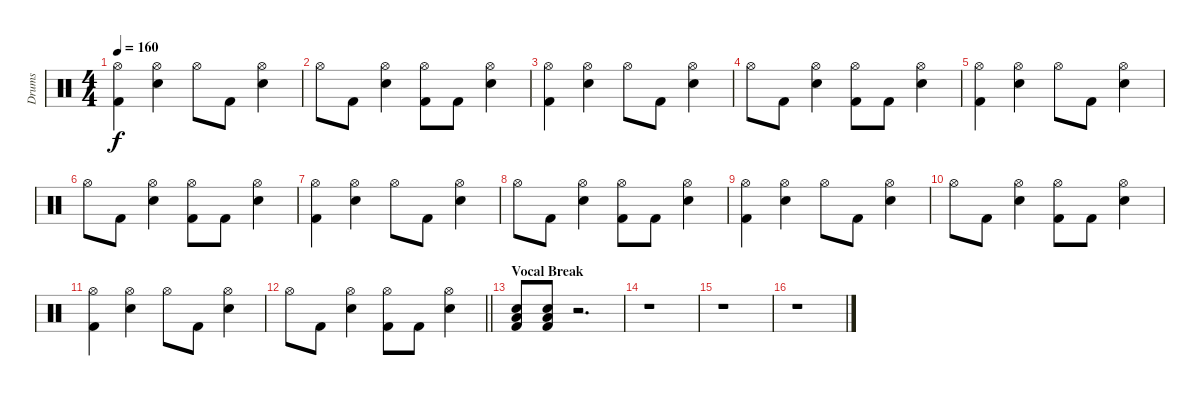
\track ("Drums" "Drums") {instrument percussion}
\staff {score}
\articulation defaults
\ts (4 4)
\tempo 160
\clef neutral
\ks c
("Hi-Hat (open)" "Kick (hit) 2").4{dy f} ("Hi-Hat (open)" "Electric Snare (hit)").4 "Hi-Hat (open)".8 "Kick (hit) 2".8 ("Hi-Hat (open)" "Electric Snare (hit)").4 |
"Hi-Hat (open)".8 "Kick (hit) 2".8 ("Hi-Hat (open)" "Electric Snare (hit)").4 ("Hi-Hat (open)" "Kick (hit) 2").8 "Kick (hit) 2".8 ("Hi-Hat (open)" "Electric Snare (hit)").4 |
("Hi-Hat (open)" "Kick (hit) 2").4 ("Hi-Hat (open)" "Electric Snare (hit)").4 "Hi-Hat (open)".8 "Kick (hit) 2".8 ("Hi-Hat (open)" "Electric Snare (hit)").4 |
"Hi-Hat (open)".8 "Kick (hit) 2".8 ("Hi-Hat (open)" "Electric Snare (hit)").4 ("Hi-Hat (open)" "Kick (hit) 2").8 "Kick (hit) 2".8 ("Hi-Hat (open)" "Electric Snare (hit)").4 |
("Hi-Hat (open)" "Kick (hit) 2").4 ("Hi-Hat (open)" "Electric Snare (hit)").4 "Hi-Hat (open)".8 "Kick (hit) 2".8 ("Hi-Hat (open)" "Electric Snare (hit)").4 |
"Hi-Hat (open)".8 "Kick (hit) 2".8 ("Hi-Hat (open)" "Electric Snare (hit)").4 ("Hi-Hat (open)" "Kick (hit) 2").8 "Kick (hit) 2".8 ("Hi-Hat (open)" "Electric Snare (hit)").4 |
("Hi-Hat (open)" "Kick (hit) 2").4 ("Hi-Hat (open)" "Electric Snare (hit)").4 "Hi-Hat (open)".8 "Kick (hit) 2".8 ("Hi-Hat (open)" "Electric Snare (hit)").4 |
"Hi-Hat (open)".8 "Kick (hit) 2".8 ("Hi-Hat (open)" "Electric Snare (hit)").4 ("Hi-Hat (open)" "Kick (hit) 2").8 "Kick (hit) 2".8 ("Hi-Hat (open)" "Electric Snare (hit)").4 |
("Hi-Hat (open)" "Kick (hit) 2").4 ("Hi-Hat (open)" "Electric Snare (hit)").4 "Hi-Hat (open)".8 "Kick (hit) 2".8 ("Hi-Hat (open)" "Electric Snare (hit)").4 |
"Hi-Hat (open)".8 "Kick (hit) 2".8 ("Hi-Hat (open)" "Electric Snare (hit)").4 ("Hi-Hat (open)" "Kick (hit) 2").8 "Kick (hit) 2".8 ("Hi-Hat (open)" "Electric Snare (hit)").4 |
("Hi-Hat (open)" "Kick (hit) 2").4 ("Hi-Hat (open)" "Electric Snare (hit)").4 "Hi-Hat (open)".8 "Kick (hit) 2".8 ("Hi-Hat (open)" "Electric Snare (hit)").4 |
\barLineRight lightlight "Hi-Hat (open)".8 "Kick (hit) 2".8
("Hi-Hat (open)" "Electric Snare (hit)").4 ("Hi-Hat (open)" "Kick (hit) 2").8 "Kick (hit) 2".8 ("Hi-Hat (open)" "Electric Snare (hit)").4 |
\section ("" "Vocal Break")
("Low Floor Tom (hit)" "Snare (hit) 2" "Kick (hit) 2").8 ("Low Floor Tom (hit)" "Snare (hit) 2" "Kick (hit) 2").8 r.2{d} |
r.1 |
r.1 |
r.1
